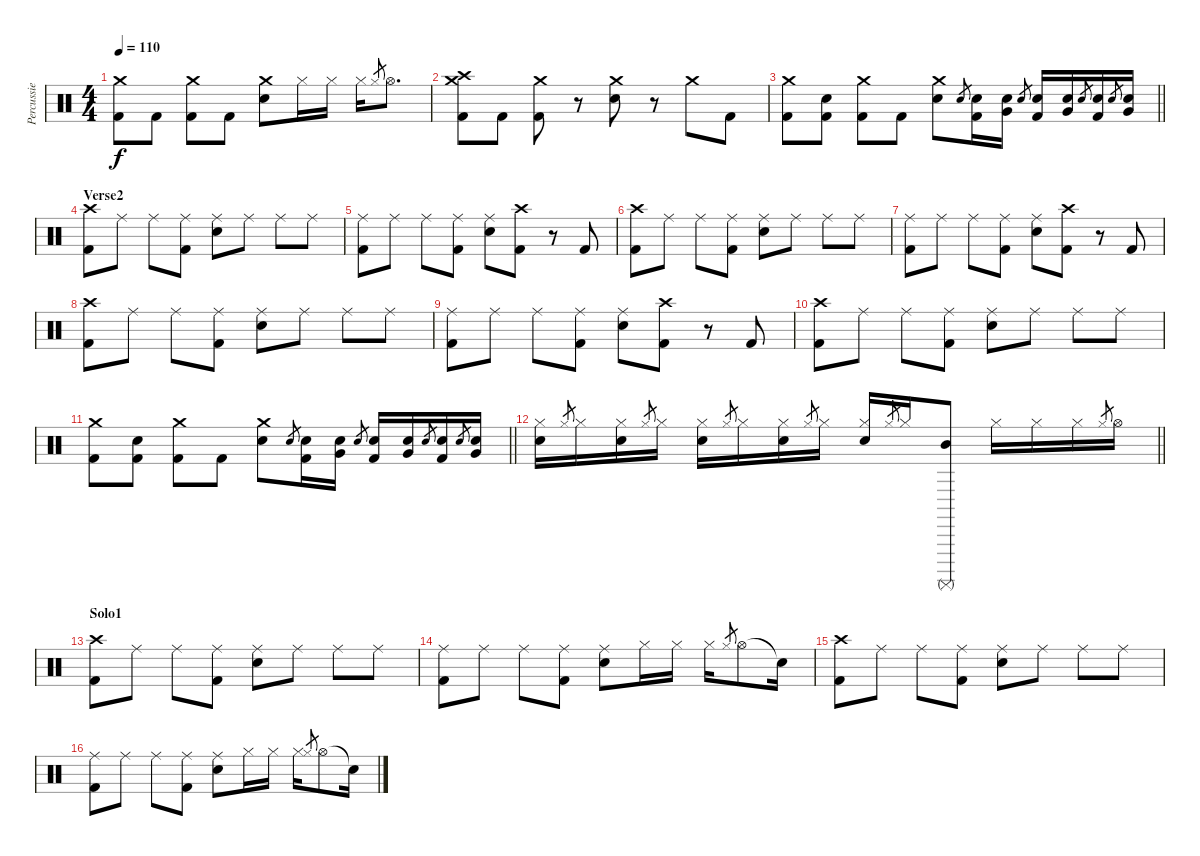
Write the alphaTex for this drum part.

\track ("Percussie" "Percussie") {instrument percussion}
\staff {score}
\articulation defaults
\ts (4 4)
\tempo 110
\clef neutral
\ks c
("Crash medium (hit)" "Kick (hit) 2").8{dy f} "Kick (hit) 2".8 ("Crash medium (hit)" "Kick (hit) 2").8 "Kick (hit) 2".8 ("Crash medium (hit)" "Electric Snare (hit)").8 "Hi-Hat (closed)".16 "Hi-Hat (closed)".16 "Hi-Hat (closed)".16 "Hi-Hat (closed)"{sl x}.8{gr} "Hi-Hat (open)".8{d} |
("Crash high (hit)" "Crash medium (hit)" "Kick (hit) 2").8 "Kick (hit) 2".8 ("Crash medium (hit)" "Kick (hit) 2").8 r.8 ("Crash medium (hit)" "Electric Snare (hit)").8 r.8 "Crash medium (hit)".8 "Kick (hit) 2".8 |
\barLineRight lightlight
("Crash medium (hit)" "Kick (hit) 2").8 ("Electric Snare (hit)" "Kick (hit) 2").8 ("Crash medium (hit)" "Kick (hit) 2").8 "Kick (hit) 2".8 ("Crash medium (hit)" "Electric Snare (hit)").8 "Electric Snare (hit)".8{gr} ("Electric Snare (hit)" "Kick (hit) 2").16 ("Electric Snare (hit)" "Very Low Tom (hit)").16 "Electric Snare (hit)".8{gr} ("Electric Snare (hit)" "Kick (hit) 2").16 ("Electric Snare (hit)" "Very Low Tom (hit)").16 "Electric Snare (hit)".8{gr} ("Electric Snare (hit)" "Kick (hit) 2").16 "Electric Snare (hit)".8{gr} ("Electric Snare (hit)" "Very Low Tom (hit)").16 |
\section ("" "Verse2")
("Crash high (hit)" "Kick (hit) 2").8 "Ride (middle)".8 "Ride (middle)".8 ("Ride (middle)" "Kick (hit) 2").8 ("Ride (middle)" "Electric Snare (hit)").8 "Ride (middle)".8 "Ride (middle)".8 "Ride (middle)".8 |
("Ride (middle)" "Kick (hit) 2").8 "Ride (middle)".8 "Ride (middle)".8 ("Ride (middle)" "Kick (hit) 2").8 ("Ride (middle)" "Electric Snare (hit)").8 ("Crash high (hit)" "Kick (hit) 2").8 r.8 "Kick (hit) 2".8 |
("Crash high (hit)" "Kick (hit) 2").8 "Ride (middle)".8 "Ride (middle)".8 ("Ride (middle)" "Kick (hit) 2").8 ("Ride (middle)" "Electric Snare (hit)").8 "Ride (middle)".8 "Ride (middle)".8 "Ride (middle)".8 |
("Ride (middle)" "Kick (hit) 2").8 "Ride (middle)".8 "Ride (middle)".8 ("Ride (middle)" "Kick (hit) 2").8 ("Ride (middle)" "Electric Snare (hit)").8 ("Crash high (hit)" "Kick (hit) 2").8 r.8 "Kick (hit) 2".8 |
("Crash high (hit)" "Kick (hit) 2").8 "Ride (middle)".8 "Ride (middle)".8 ("Ride (middle)" "Kick (hit) 2").8 ("Ride (middle)" "Electric Snare (hit)").8 "Ride (middle)".8 "Ride (middle)".8 "Ride (middle)".8 |
("Ride (middle)" "Kick (hit) 2").8 "Ride (middle)".8 "Ride (middle)".8 ("Ride (middle)" "Kick (hit) 2").8 ("Ride (middle)" "Electric Snare (hit)").8 ("Crash high (hit)" "Kick (hit) 2").8 r.8 "Kick (hit) 2".8 |
("Crash high (hit)" "Kick (hit) 2").8 "Ride (middle)".8 "Ride (middle)".8 ("Ride (middle)" "Kick (hit) 2").8 ("Ride (middle)" "Electric Snare (hit)").8 "Ride (middle)".8 "Ride (middle)".8 "Ride (middle)".8 |
\barLineRight lightlight
("Crash medium (hit)" "Kick (hit) 2").8 ("Electric Snare (hit)" "Kick (hit) 2").8 ("Crash medium (hit)" "Kick (hit) 2").8 "Kick (hit) 2".8 ("Crash medium (hit)" "Electric Snare (hit)").8 "Electric Snare (hit)".8{gr} ("Electric Snare (hit)" "Kick (hit) 2").16 ("Electric Snare (hit)" "Very Low Tom (hit)").16 "Electric Snare (hit)".8{gr} ("Electric Snare (hit)" "Kick (hit) 2").16 ("Electric Snare (hit)" "Very Low Tom (hit)").16 "Electric Snare (hit)".8{gr} ("Electric Snare (hit)" "Kick (hit) 2").16 "Electric Snare (hit)".8{gr} ("Electric Snare (hit)" "Very Low Tom (hit)").16 |
\barLineRight lightlight
("Electric Snare (hit)" "Hi-Hat (closed)").16 "Hi-Hat (closed)".8{gr} "Hi-Hat (closed)".16 ("Electric Snare (hit)" "Hi-Hat (closed)").16 "Hi-Hat (closed)".8{gr} "Hi-Hat (closed)".16 ("Electric Snare (hit)" "Hi-Hat (closed)").16 "Hi-Hat (closed)".8{gr} "Hi-Hat (closed)".16 ("Electric Snare (hit)" "Hi-Hat (closed)").16 "Hi-Hat (closed)".8{gr} "Hi-Hat (closed)".16 ("Electric Snare (hit)" "Hi-Hat (closed)").16 "Hi-Hat (closed)".8{gr} "Hi-Hat (closed)".16 ("Mid Tom (hit)" "Surdo (mute)").8 "Hi-Hat (closed)".16 "Hi-Hat (closed)".16 "Hi-Hat (closed)".16 "Hi-Hat (closed)"{sl x}.8{gr} "Hi-Hat (open)".16 |
\section ("" "Solo1")
("Crash high (hit)" "Kick (hit) 2").8 "Ride (middle)".8 "Ride (middle)".8 ("Ride (middle)" "Kick (hit) 2").8 ("Ride (middle)" "Electric Snare (hit)").8 "Ride (middle)".8 "Ride (middle)".8 "Ride (middle)".8 |
("Ride (middle)" "Kick (hit) 2").8 "Ride (middle)".8 "Ride (middle)".8 ("Ride (middle)" "Kick (hit) 2").8 ("Ride (middle)" "Electric Snare (hit)").8 "Hi-Hat (closed)".16 "Hi-Hat (closed)".16 "Hi-Hat (closed)".16 "Hi-Hat (closed)"{sl x}.8{gr} "Hi-Hat (open)".8 "Snare (hit)"{t}.16 |
("Crash high (hit)" "Kick (hit) 2").8 "Ride (middle)".8 "Ride (middle)".8 ("Ride (middle)" "Kick (hit) 2").8 ("Ride (middle)" "Electric Snare (hit)").8 "Ride (middle)".8 "Ride (middle)".8 "Ride (middle)".8 |
("Ride (middle)" "Kick (hit) 2").8 "Ride (middle)".8 "Ride (middle)".8 ("Ride (middle)" "Kick (hit) 2").8 ("Ride (middle)" "Electric Snare (hit)").8 "Hi-Hat (closed)".16 "Hi-Hat (closed)".16 "Hi-Hat (closed)".16 "Hi-Hat (closed)"{sl x}.8{gr} "Hi-Hat (open)".8 "Snare (hit)"{t}.16
